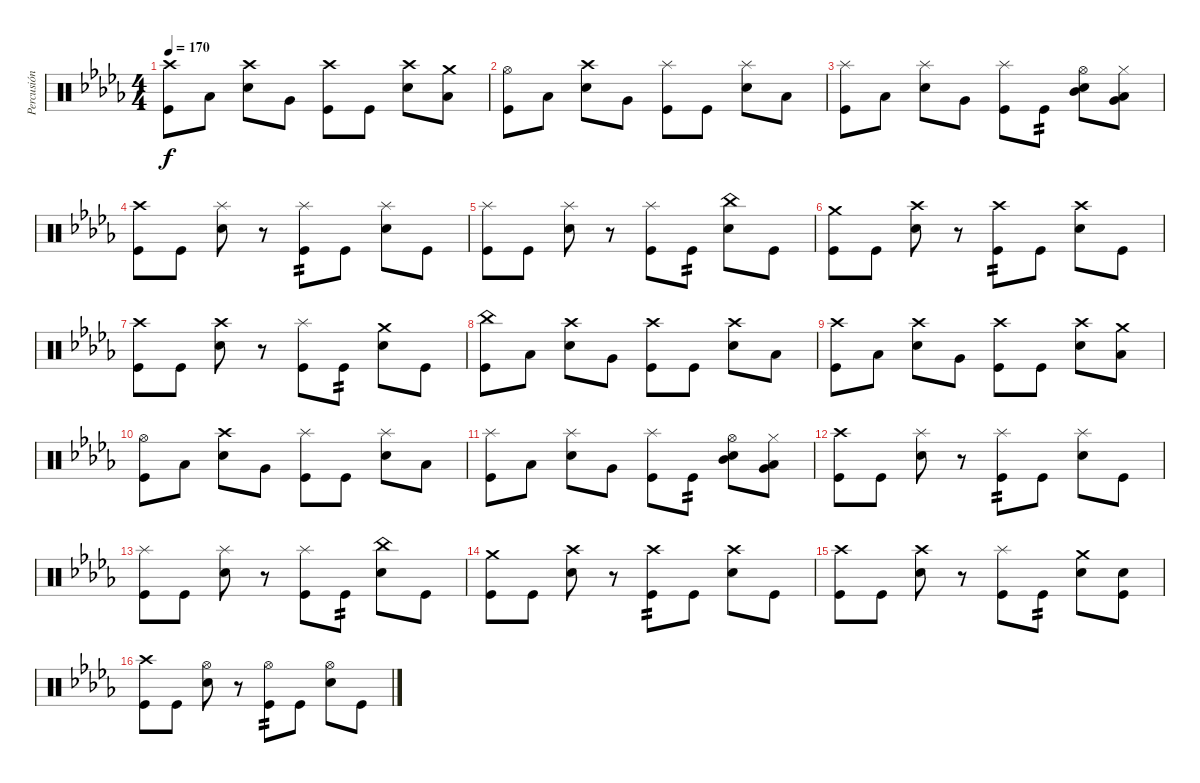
\track ("Percusión" "Percusión") {instrument percussion}
\staff {score}
\articulation defaults
\ts (4 4)
\tempo 170
\clef neutral
\ks db
("Crash high (hit)" "Kick (hit)").8{dy f} "Low Floor Tom (hit)".8 ("Crash high (hit)" "Electric Snare (hit)").8 "Very Low Tom (hit)".8 ("Crash high (hit)" "Kick (hit)").8 "Kick (hit)".8 ("Crash high (hit)" "Electric Snare (hit)").8 ("Crash medium (hit)" "Low Tom (hit)").8 |
("Hi-Hat (open)" "Kick (hit)").8 "Low Floor Tom (hit)".8 ("Crash high (hit)" "Electric Snare (hit)").8 "Very Low Tom (hit)".8 ("Splash (hit)" "Kick (hit)").8 "Kick (hit)".8 ("Splash (hit)" "Electric Snare (hit)").8 "Low Tom (hit)".8 |
("Splash (hit)" "Kick (hit)").8 "Low Floor Tom (hit)".8 ("Splash (hit)" "Electric Snare (hit)").8 "Very Low Tom (hit)".8 ("Splash (hit)" "Kick (hit)").8 "Kick (hit)".8{tp 2} ("Hi-Hat (open)" "Mid Tom (hit)" "Electric Snare (hit)").8 ("Hi-Hat (closed)" "Low Tom (hit)" "Very Low Tom (hit)").8 |
("Crash high (hit)" "Kick (hit)").8 "Kick (hit)".8 ("Splash (hit)" "Electric Snare (hit)").8 r.8 ("Splash (hit)" "Kick (hit)").8{tp 2} "Kick (hit)".8 ("Splash (hit)" "Electric Snare (hit)").8 "Kick (hit)".8 |
("Splash (hit)" "Kick (hit)").8 "Kick (hit)".8 ("Splash (hit)" "Electric Snare (hit)").8 r.8 ("Splash (hit)" "Kick (hit)").8 "Kick (hit)".8{tp 2} ("China (hit)" "Electric Snare (hit)").8 "Kick (hit)".8 |
("Crash medium (hit)" "Kick (hit)").8 "Kick (hit)".8 ("Crash high (hit)" "Electric Snare (hit)").8 r.8 ("Crash high (hit)" "Kick (hit)").8{tp 2} "Kick (hit)".8 ("Crash high (hit)" "Electric Snare (hit)").8 "Kick (hit)".8 |
("Crash high (hit)" "Kick (hit)").8 "Kick (hit)".8 ("Crash high (hit)" "Electric Snare (hit)").8 r.8 ("Splash (hit)" "Kick (hit)").8 "Kick (hit)".8{tp 2} ("Crash medium (hit)" "Electric Snare (hit)").8 "Kick (hit)".8 |
("China (hit)" "Kick (hit)").8 "Low Floor Tom (hit)".8 ("Crash high (hit)" "Electric Snare (hit)").8 "Very Low Tom (hit)".8 ("Crash high (hit)" "Kick (hit)").8 "Kick (hit)".8 ("Crash high (hit)" "Electric Snare (hit)").8 "Low Tom (hit)".8 |
("Crash high (hit)" "Kick (hit)").8 "Low Floor Tom (hit)".8 ("Crash high (hit)" "Electric Snare (hit)").8 "Very Low Tom (hit)".8 ("Crash high (hit)" "Kick (hit)").8 "Kick (hit)".8 ("Crash high (hit)" "Electric Snare (hit)").8 ("Crash medium (hit)" "Low Tom (hit)").8 |
("Hi-Hat (open)" "Kick (hit)").8 "Low Floor Tom (hit)".8 ("Crash high (hit)" "Electric Snare (hit)").8 "Very Low Tom (hit)".8 ("Splash (hit)" "Kick (hit)").8 "Kick (hit)".8 ("Splash (hit)" "Electric Snare (hit)").8 "Low Tom (hit)".8 |
("Splash (hit)" "Kick (hit)").8 "Low Floor Tom (hit)".8 ("Splash (hit)" "Electric Snare (hit)").8 "Very Low Tom (hit)".8 ("Splash (hit)" "Kick (hit)").8 "Kick (hit)".8{tp 2} ("Hi-Hat (open)" "Mid Tom (hit)" "Electric Snare (hit)").8 ("Hi-Hat (closed)" "Low Tom (hit)" "Very Low Tom (hit)").8 |
("Crash high (hit)" "Kick (hit)").8 "Kick (hit)".8 ("Splash (hit)" "Electric Snare (hit)").8 r.8 ("Splash (hit)" "Kick (hit)").8{tp 2} "Kick (hit)".8 ("Splash (hit)" "Electric Snare (hit)").8 "Kick (hit)".8 |
("Splash (hit)" "Kick (hit)").8 "Kick (hit)".8 ("Splash (hit)" "Electric Snare (hit)").8 r.8 ("Splash (hit)" "Kick (hit)").8 "Kick (hit)".8{tp 2} ("China (hit)" "Electric Snare (hit)").8 "Kick (hit)".8 |
("Crash medium (hit)" "Kick (hit)").8 "Kick (hit)".8 ("Crash high (hit)" "Electric Snare (hit)").8 r.8 ("Crash high (hit)" "Kick (hit)").8{tp 2} "Kick (hit)".8 ("Crash high (hit)" "Electric Snare (hit)").8 "Kick (hit)".8 |
("Crash high (hit)" "Kick (hit)").8 "Kick (hit)".8 ("Crash high (hit)" "Electric Snare (hit)").8 r.8 ("Splash (hit)" "Kick (hit)").8 "Kick (hit)".8{tp 2} ("Crash medium (hit)" "Electric Snare (hit)").8 ("Electric Snare (hit)" "Kick (hit)").8 |
("Crash high (hit)" "Kick (hit)").8 "Kick (hit)".8 ("Hi-Hat (open)" "Electric Snare (hit)").8 r.8 ("Hi-Hat (open)" "Kick (hit)").8{tp 2} "Kick (hit)".8 ("Hi-Hat (open)" "Electric Snare (hit)").8 "Kick (hit)".8
